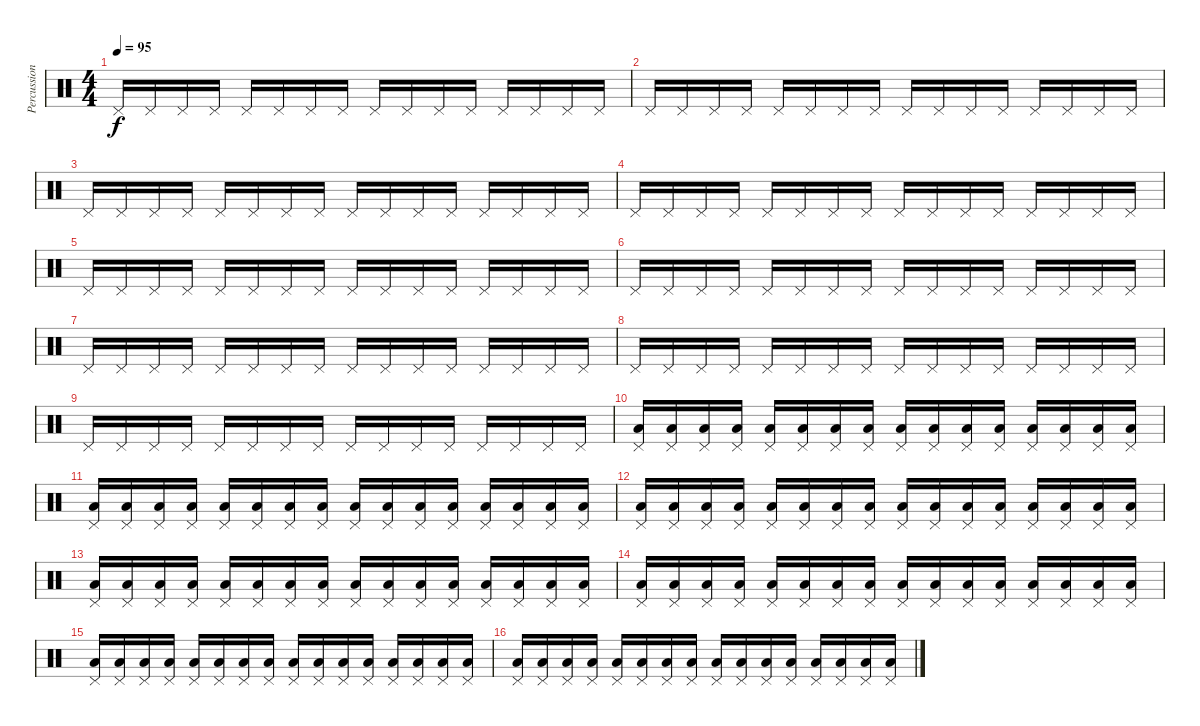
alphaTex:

\track ("Percussion" "Percussion") {instrument percussion}
\staff {score}
\articulation defaults
\ts (4 4)
\tempo 95
\clef neutral
\ks c "Pedal Hi-Hat (hit)".16{dy f} "Pedal Hi-Hat (hit)".16 "Pedal Hi-Hat (hit)".16 "Pedal Hi-Hat (hit)".16 "Pedal Hi-Hat (hit)".16 "Pedal Hi-Hat (hit)".16 "Pedal Hi-Hat (hit)".16 "Pedal Hi-Hat (hit)".16 "Pedal Hi-Hat (hit)".16 "Pedal Hi-Hat (hit)".16 "Pedal Hi-Hat (hit)".16 "Pedal Hi-Hat (hit)".16 "Pedal Hi-Hat (hit)".16 "Pedal Hi-Hat (hit)".16 "Pedal Hi-Hat (hit)".16 "Pedal Hi-Hat (hit)".16
|
"Pedal Hi-Hat (hit)".16 "Pedal Hi-Hat (hit)".16 "Pedal Hi-Hat (hit)".16 "Pedal Hi-Hat (hit)".16 "Pedal Hi-Hat (hit)".16 "Pedal Hi-Hat (hit)".16 "Pedal Hi-Hat (hit)".16 "Pedal Hi-Hat (hit)".16 "Pedal Hi-Hat (hit)".16 "Pedal Hi-Hat (hit)".16 "Pedal Hi-Hat (hit)".16 "Pedal Hi-Hat (hit)".16 "Pedal Hi-Hat (hit)".16 "Pedal Hi-Hat (hit)".16 "Pedal Hi-Hat (hit)".16 "Pedal Hi-Hat (hit)".16 |
"Pedal Hi-Hat (hit)".16 "Pedal Hi-Hat (hit)".16 "Pedal Hi-Hat (hit)".16 "Pedal Hi-Hat (hit)".16 "Pedal Hi-Hat (hit)".16 "Pedal Hi-Hat (hit)".16 "Pedal Hi-Hat (hit)".16 "Pedal Hi-Hat (hit)".16 "Pedal Hi-Hat (hit)".16 "Pedal Hi-Hat (hit)".16 "Pedal Hi-Hat (hit)".16 "Pedal Hi-Hat (hit)".16 "Pedal Hi-Hat (hit)".16 "Pedal Hi-Hat (hit)".16 "Pedal Hi-Hat (hit)".16 "Pedal Hi-Hat (hit)".16 |
"Pedal Hi-Hat (hit)".16 "Pedal Hi-Hat (hit)".16 "Pedal Hi-Hat (hit)".16 "Pedal Hi-Hat (hit)".16 "Pedal Hi-Hat (hit)".16 "Pedal Hi-Hat (hit)".16 "Pedal Hi-Hat (hit)".16 "Pedal Hi-Hat (hit)".16 "Pedal Hi-Hat (hit)".16 "Pedal Hi-Hat (hit)".16 "Pedal Hi-Hat (hit)".16 "Pedal Hi-Hat (hit)".16 "Pedal Hi-Hat (hit)".16 "Pedal Hi-Hat (hit)".16 "Pedal Hi-Hat (hit)".16 "Pedal Hi-Hat (hit)".16 |
"Pedal Hi-Hat (hit)".16 "Pedal Hi-Hat (hit)".16 "Pedal Hi-Hat (hit)".16 "Pedal Hi-Hat (hit)".16 "Pedal Hi-Hat (hit)".16 "Pedal Hi-Hat (hit)".16 "Pedal Hi-Hat (hit)".16 "Pedal Hi-Hat (hit)".16 "Pedal Hi-Hat (hit)".16 "Pedal Hi-Hat (hit)".16 "Pedal Hi-Hat (hit)".16 "Pedal Hi-Hat (hit)".16 "Pedal Hi-Hat (hit)".16 "Pedal Hi-Hat (hit)".16 "Pedal Hi-Hat (hit)".16 "Pedal Hi-Hat (hit)".16 |
"Pedal Hi-Hat (hit)".16 "Pedal Hi-Hat (hit)".16 "Pedal Hi-Hat (hit)".16 "Pedal Hi-Hat (hit)".16 "Pedal Hi-Hat (hit)".16 "Pedal Hi-Hat (hit)".16 "Pedal Hi-Hat (hit)".16 "Pedal Hi-Hat (hit)".16 "Pedal Hi-Hat (hit)".16 "Pedal Hi-Hat (hit)".16 "Pedal Hi-Hat (hit)".16 "Pedal Hi-Hat (hit)".16 "Pedal Hi-Hat (hit)".16 "Pedal Hi-Hat (hit)".16 "Pedal Hi-Hat (hit)".16 "Pedal Hi-Hat (hit)".16 |
"Pedal Hi-Hat (hit)".16 "Pedal Hi-Hat (hit)".16 "Pedal Hi-Hat (hit)".16 "Pedal Hi-Hat (hit)".16 "Pedal Hi-Hat (hit)".16 "Pedal Hi-Hat (hit)".16 "Pedal Hi-Hat (hit)".16 "Pedal Hi-Hat (hit)".16 "Pedal Hi-Hat (hit)".16 "Pedal Hi-Hat (hit)".16 "Pedal Hi-Hat (hit)".16 "Pedal Hi-Hat (hit)".16 "Pedal Hi-Hat (hit)".16 "Pedal Hi-Hat (hit)".16 "Pedal Hi-Hat (hit)".16 "Pedal Hi-Hat (hit)".16 |
"Pedal Hi-Hat (hit)".16 "Pedal Hi-Hat (hit)".16 "Pedal Hi-Hat (hit)".16 "Pedal Hi-Hat (hit)".16 "Pedal Hi-Hat (hit)".16 "Pedal Hi-Hat (hit)".16 "Pedal Hi-Hat (hit)".16 "Pedal Hi-Hat (hit)".16 "Pedal Hi-Hat (hit)".16 "Pedal Hi-Hat (hit)".16 "Pedal Hi-Hat (hit)".16 "Pedal Hi-Hat (hit)".16 "Pedal Hi-Hat (hit)".16 "Pedal Hi-Hat (hit)".16 "Pedal Hi-Hat (hit)".16 "Pedal Hi-Hat (hit)".16 |
"Pedal Hi-Hat (hit)".16 "Pedal Hi-Hat (hit)".16 "Pedal Hi-Hat (hit)".16 "Pedal Hi-Hat (hit)".16 "Pedal Hi-Hat (hit)".16 "Pedal Hi-Hat (hit)".16 "Pedal Hi-Hat (hit)".16 "Pedal Hi-Hat (hit)".16 "Pedal Hi-Hat (hit)".16 "Pedal Hi-Hat (hit)".16 "Pedal Hi-Hat (hit)".16 "Pedal Hi-Hat (hit)".16 "Pedal Hi-Hat (hit)".16 "Pedal Hi-Hat (hit)".16 "Pedal Hi-Hat (hit)".16 "Pedal Hi-Hat (hit)".16 |
("Pedal Hi-Hat (hit)" "Low Floor Tom (hit)").16 ("Pedal Hi-Hat (hit)" "Low Floor Tom (hit)").16 ("Pedal Hi-Hat (hit)" "Low Floor Tom (hit)").16 ("Pedal Hi-Hat (hit)" "Low Floor Tom (hit)").16 ("Pedal Hi-Hat (hit)" "Low Floor Tom (hit)").16 ("Pedal Hi-Hat (hit)" "Low Floor Tom (hit)").16 ("Pedal Hi-Hat (hit)" "Low Floor Tom (hit)").16 ("Pedal Hi-Hat (hit)" "Low Floor Tom (hit)").16 ("Pedal Hi-Hat (hit)" "Low Floor Tom (hit)").16 ("Pedal Hi-Hat (hit)" "Low Floor Tom (hit)").16 ("Pedal Hi-Hat (hit)" "Low Floor Tom (hit)").16 ("Pedal Hi-Hat (hit)" "Low Floor Tom (hit)").16 ("Pedal Hi-Hat (hit)" "Low Floor Tom (hit)").16 ("Pedal Hi-Hat (hit)" "Low Floor Tom (hit)").16 ("Pedal Hi-Hat (hit)" "Low Floor Tom (hit)").16 ("Pedal Hi-Hat (hit)" "Low Floor Tom (hit)").16 |
("Pedal Hi-Hat (hit)" "Low Floor Tom (hit)").16 ("Pedal Hi-Hat (hit)" "Low Floor Tom (hit)").16 ("Pedal Hi-Hat (hit)" "Low Floor Tom (hit)").16 ("Pedal Hi-Hat (hit)" "Low Floor Tom (hit)").16 ("Pedal Hi-Hat (hit)" "Low Floor Tom (hit)").16 ("Pedal Hi-Hat (hit)" "Low Floor Tom (hit)").16 ("Pedal Hi-Hat (hit)" "Low Floor Tom (hit)").16 ("Pedal Hi-Hat (hit)" "Low Floor Tom (hit)").16 ("Pedal Hi-Hat (hit)" "Low Floor Tom (hit)").16 ("Pedal Hi-Hat (hit)" "Low Floor Tom (hit)").16 ("Pedal Hi-Hat (hit)" "Low Floor Tom (hit)").16 ("Pedal Hi-Hat (hit)" "Low Floor Tom (hit)").16 ("Pedal Hi-Hat (hit)" "Low Floor Tom (hit)").16 ("Pedal Hi-Hat (hit)" "Low Floor Tom (hit)").16 ("Pedal Hi-Hat (hit)" "Low Floor Tom (hit)").16 ("Pedal Hi-Hat (hit)" "Low Floor Tom (hit)").16 |
("Pedal Hi-Hat (hit)" "Low Floor Tom (hit)").16 ("Pedal Hi-Hat (hit)" "Low Floor Tom (hit)").16 ("Pedal Hi-Hat (hit)" "Low Floor Tom (hit)").16 ("Pedal Hi-Hat (hit)" "Low Floor Tom (hit)").16 ("Pedal Hi-Hat (hit)" "Low Floor Tom (hit)").16 ("Pedal Hi-Hat (hit)" "Low Floor Tom (hit)").16 ("Pedal Hi-Hat (hit)" "Low Floor Tom (hit)").16 ("Pedal Hi-Hat (hit)" "Low Floor Tom (hit)").16 ("Pedal Hi-Hat (hit)" "Low Floor Tom (hit)").16 ("Pedal Hi-Hat (hit)" "Low Floor Tom (hit)").16 ("Pedal Hi-Hat (hit)" "Low Floor Tom (hit)").16 ("Pedal Hi-Hat (hit)" "Low Floor Tom (hit)").16 ("Pedal Hi-Hat (hit)" "Low Floor Tom (hit)").16 ("Pedal Hi-Hat (hit)" "Low Floor Tom (hit)").16 ("Pedal Hi-Hat (hit)" "Low Floor Tom (hit)").16 ("Pedal Hi-Hat (hit)" "Low Floor Tom (hit)").16 |
("Pedal Hi-Hat (hit)" "Low Floor Tom (hit)").16 ("Pedal Hi-Hat (hit)" "Low Floor Tom (hit)").16 ("Pedal Hi-Hat (hit)" "Low Floor Tom (hit)").16 ("Pedal Hi-Hat (hit)" "Low Floor Tom (hit)").16 ("Pedal Hi-Hat (hit)" "Low Floor Tom (hit)").16 ("Pedal Hi-Hat (hit)" "Low Floor Tom (hit)").16 ("Pedal Hi-Hat (hit)" "Low Floor Tom (hit)").16 ("Pedal Hi-Hat (hit)" "Low Floor Tom (hit)").16 ("Pedal Hi-Hat (hit)" "Low Floor Tom (hit)").16 ("Pedal Hi-Hat (hit)" "Low Floor Tom (hit)").16 ("Pedal Hi-Hat (hit)" "Low Floor Tom (hit)").16 ("Pedal Hi-Hat (hit)" "Low Floor Tom (hit)").16 ("Pedal Hi-Hat (hit)" "Low Floor Tom (hit)").16 ("Pedal Hi-Hat (hit)" "Low Floor Tom (hit)").16 ("Pedal Hi-Hat (hit)" "Low Floor Tom (hit)").16 ("Pedal Hi-Hat (hit)" "Low Floor Tom (hit)").16 |
("Pedal Hi-Hat (hit)" "Low Floor Tom (hit)").16 ("Pedal Hi-Hat (hit)" "Low Floor Tom (hit)").16 ("Pedal Hi-Hat (hit)" "Low Floor Tom (hit)").16 ("Pedal Hi-Hat (hit)" "Low Floor Tom (hit)").16 ("Pedal Hi-Hat (hit)" "Low Floor Tom (hit)").16 ("Pedal Hi-Hat (hit)" "Low Floor Tom (hit)").16 ("Pedal Hi-Hat (hit)" "Low Floor Tom (hit)").16 ("Pedal Hi-Hat (hit)" "Low Floor Tom (hit)").16 ("Pedal Hi-Hat (hit)" "Low Floor Tom (hit)").16 ("Pedal Hi-Hat (hit)" "Low Floor Tom (hit)").16 ("Pedal Hi-Hat (hit)" "Low Floor Tom (hit)").16 ("Pedal Hi-Hat (hit)" "Low Floor Tom (hit)").16 ("Pedal Hi-Hat (hit)" "Low Floor Tom (hit)").16 ("Pedal Hi-Hat (hit)" "Low Floor Tom (hit)").16 ("Pedal Hi-Hat (hit)" "Low Floor Tom (hit)").16 ("Pedal Hi-Hat (hit)" "Low Floor Tom (hit)").16 |
("Pedal Hi-Hat (hit)" "Low Floor Tom (hit)").16 ("Pedal Hi-Hat (hit)" "Low Floor Tom (hit)").16 ("Pedal Hi-Hat (hit)" "Low Floor Tom (hit)").16 ("Pedal Hi-Hat (hit)" "Low Floor Tom (hit)").16 ("Pedal Hi-Hat (hit)" "Low Floor Tom (hit)").16 ("Pedal Hi-Hat (hit)" "Low Floor Tom (hit)").16 ("Pedal Hi-Hat (hit)" "Low Floor Tom (hit)").16 ("Pedal Hi-Hat (hit)" "Low Floor Tom (hit)").16 ("Pedal Hi-Hat (hit)" "Low Floor Tom (hit)").16 ("Pedal Hi-Hat (hit)" "Low Floor Tom (hit)").16 ("Pedal Hi-Hat (hit)" "Low Floor Tom (hit)").16 ("Pedal Hi-Hat (hit)" "Low Floor Tom (hit)").16 ("Pedal Hi-Hat (hit)" "Low Floor Tom (hit)").16 ("Pedal Hi-Hat (hit)" "Low Floor Tom (hit)").16 ("Pedal Hi-Hat (hit)" "Low Floor Tom (hit)").16 ("Pedal Hi-Hat (hit)" "Low Floor Tom (hit)").16 |
("Pedal Hi-Hat (hit)" "Low Floor Tom (hit)").16 ("Pedal Hi-Hat (hit)" "Low Floor Tom (hit)").16 ("Pedal Hi-Hat (hit)" "Low Floor Tom (hit)").16 ("Pedal Hi-Hat (hit)" "Low Floor Tom (hit)").16 ("Pedal Hi-Hat (hit)" "Low Floor Tom (hit)").16 ("Pedal Hi-Hat (hit)" "Low Floor Tom (hit)").16 ("Pedal Hi-Hat (hit)" "Low Floor Tom (hit)").16 ("Pedal Hi-Hat (hit)" "Low Floor Tom (hit)").16 ("Pedal Hi-Hat (hit)" "Low Floor Tom (hit)").16 ("Pedal Hi-Hat (hit)" "Low Floor Tom (hit)").16 ("Pedal Hi-Hat (hit)" "Low Floor Tom (hit)").16 ("Pedal Hi-Hat (hit)" "Low Floor Tom (hit)").16 ("Pedal Hi-Hat (hit)" "Low Floor Tom (hit)").16 ("Pedal Hi-Hat (hit)" "Low Floor Tom (hit)").16 ("Pedal Hi-Hat (hit)" "Low Floor Tom (hit)").16 ("Pedal Hi-Hat (hit)" "Low Floor Tom (hit)").16
